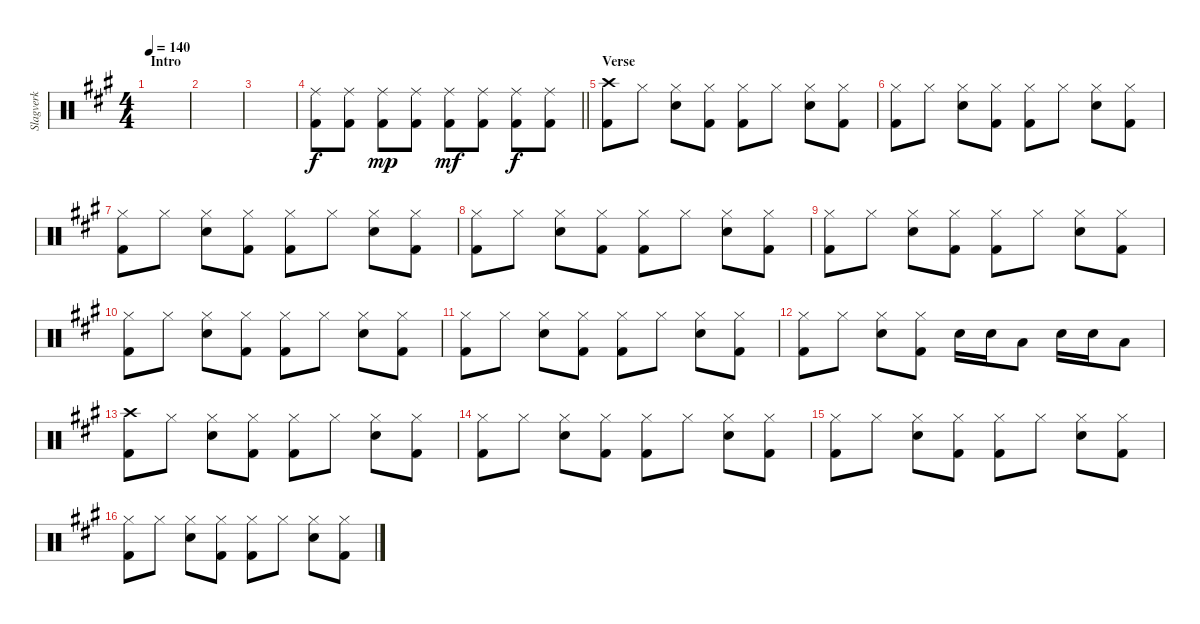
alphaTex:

\track ("Slagverk" "Slagverk") {instrument percussion}
\staff {score}
\articulation defaults
\ts (4 4)
\section ("" "Intro")
\tempo 140
\clef neutral
\ks a
|
|
|
\barLineRight lightlight
("Ride (middle)" "Kick (hit) 2").8 ("Ride (middle)" "Kick (hit) 2").8 ("Ride (middle)" "Kick (hit) 2").8{dy mp} ("Ride (middle)" "Kick (hit) 2").8 ("Ride (middle)" "Kick (hit) 2").8{dy mf} ("Ride (middle)" "Kick (hit) 2").8 ("Ride (middle)" "Kick (hit) 2").8{dy f} ("Ride (middle)" "Kick (hit) 2").8 |
\section ("" "Verse")
("Crash high (hit)" "Kick (hit) 2").8 "Hi-Hat (closed)".8 ("Hi-Hat (closed)" "Electric Snare (hit)").8 ("Hi-Hat (closed)" "Kick (hit) 2").8 ("Hi-Hat (closed)" "Kick (hit) 2").8 "Hi-Hat (closed)".8 ("Hi-Hat (closed)" "Electric Snare (hit)").8 ("Hi-Hat (closed)" "Kick (hit) 2").8 |
("Hi-Hat (closed)" "Kick (hit) 2").8 "Hi-Hat (closed)".8 ("Hi-Hat (closed)" "Electric Snare (hit)").8 ("Hi-Hat (closed)" "Kick (hit) 2").8 ("Hi-Hat (closed)" "Kick (hit) 2").8 "Hi-Hat (closed)".8 ("Hi-Hat (closed)" "Electric Snare (hit)").8 ("Hi-Hat (closed)" "Kick (hit) 2").8 |
("Hi-Hat (closed)" "Kick (hit) 2").8 "Hi-Hat (closed)".8 ("Hi-Hat (closed)" "Electric Snare (hit)").8 ("Hi-Hat (closed)" "Kick (hit) 2").8 ("Hi-Hat (closed)" "Kick (hit) 2").8 "Hi-Hat (closed)".8 ("Hi-Hat (closed)" "Electric Snare (hit)").8 ("Hi-Hat (closed)" "Kick (hit) 2").8 |
("Hi-Hat (closed)" "Kick (hit) 2").8 "Hi-Hat (closed)".8 ("Hi-Hat (closed)" "Electric Snare (hit)").8 ("Hi-Hat (closed)" "Kick (hit) 2").8 ("Hi-Hat (closed)" "Kick (hit) 2").8 "Hi-Hat (closed)".8 ("Hi-Hat (closed)" "Electric Snare (hit)").8 ("Hi-Hat (closed)" "Kick (hit) 2").8 |
("Hi-Hat (closed)" "Kick (hit) 2").8 "Hi-Hat (closed)".8 ("Hi-Hat (closed)" "Electric Snare (hit)").8 ("Hi-Hat (closed)" "Kick (hit) 2").8 ("Hi-Hat (closed)" "Kick (hit) 2").8 "Hi-Hat (closed)".8 ("Hi-Hat (closed)" "Electric Snare (hit)").8 ("Hi-Hat (closed)" "Kick (hit) 2").8 |
("Hi-Hat (closed)" "Kick (hit) 2").8 "Hi-Hat (closed)".8 ("Hi-Hat (closed)" "Electric Snare (hit)").8 ("Hi-Hat (closed)" "Kick (hit) 2").8 ("Hi-Hat (closed)" "Kick (hit) 2").8 "Hi-Hat (closed)".8 ("Hi-Hat (closed)" "Electric Snare (hit)").8 ("Hi-Hat (closed)" "Kick (hit) 2").8 |
("Hi-Hat (closed)" "Kick (hit) 2").8 "Hi-Hat (closed)".8 ("Hi-Hat (closed)" "Electric Snare (hit)").8 ("Hi-Hat (closed)" "Kick (hit) 2").8 ("Hi-Hat (closed)" "Kick (hit) 2").8 "Hi-Hat (closed)".8 ("Hi-Hat (closed)" "Electric Snare (hit)").8 ("Hi-Hat (closed)" "Kick (hit) 2").8 |
("Hi-Hat (closed)" "Kick (hit) 2").8 "Hi-Hat (closed)".8 ("Hi-Hat (closed)" "Electric Snare (hit)").8 ("Hi-Hat (closed)" "Kick (hit) 2").8 "Electric Snare (hit)".16 "Electric Snare (hit)".16 "Low Floor Tom (hit)".8 "Electric Snare (hit)".16 "Electric Snare (hit)".16 "Low Floor Tom (hit)".8 |
("Crash high (hit)" "Kick (hit) 2").8 "Hi-Hat (closed)".8 ("Hi-Hat (closed)" "Electric Snare (hit)").8 ("Hi-Hat (closed)" "Kick (hit) 2").8 ("Hi-Hat (closed)" "Kick (hit) 2").8 "Hi-Hat (closed)".8 ("Hi-Hat (closed)" "Electric Snare (hit)").8 ("Hi-Hat (closed)" "Kick (hit) 2").8 |
("Hi-Hat (closed)" "Kick (hit) 2").8 "Hi-Hat (closed)".8 ("Hi-Hat (closed)" "Electric Snare (hit)").8 ("Hi-Hat (closed)" "Kick (hit) 2").8 ("Hi-Hat (closed)" "Kick (hit) 2").8 "Hi-Hat (closed)".8 ("Hi-Hat (closed)" "Electric Snare (hit)").8 ("Hi-Hat (closed)" "Kick (hit) 2").8 |
("Hi-Hat (closed)" "Kick (hit) 2").8 "Hi-Hat (closed)".8 ("Hi-Hat (closed)" "Electric Snare (hit)").8 ("Hi-Hat (closed)" "Kick (hit) 2").8 ("Hi-Hat (closed)" "Kick (hit) 2").8 "Hi-Hat (closed)".8 ("Hi-Hat (closed)" "Electric Snare (hit)").8 ("Hi-Hat (closed)" "Kick (hit) 2").8 |
("Hi-Hat (closed)" "Kick (hit) 2").8 "Hi-Hat (closed)".8 ("Hi-Hat (closed)" "Electric Snare (hit)").8 ("Hi-Hat (closed)" "Kick (hit) 2").8 ("Hi-Hat (closed)" "Kick (hit) 2").8 "Hi-Hat (closed)".8 ("Hi-Hat (closed)" "Electric Snare (hit)").8 ("Hi-Hat (closed)" "Kick (hit) 2").8
